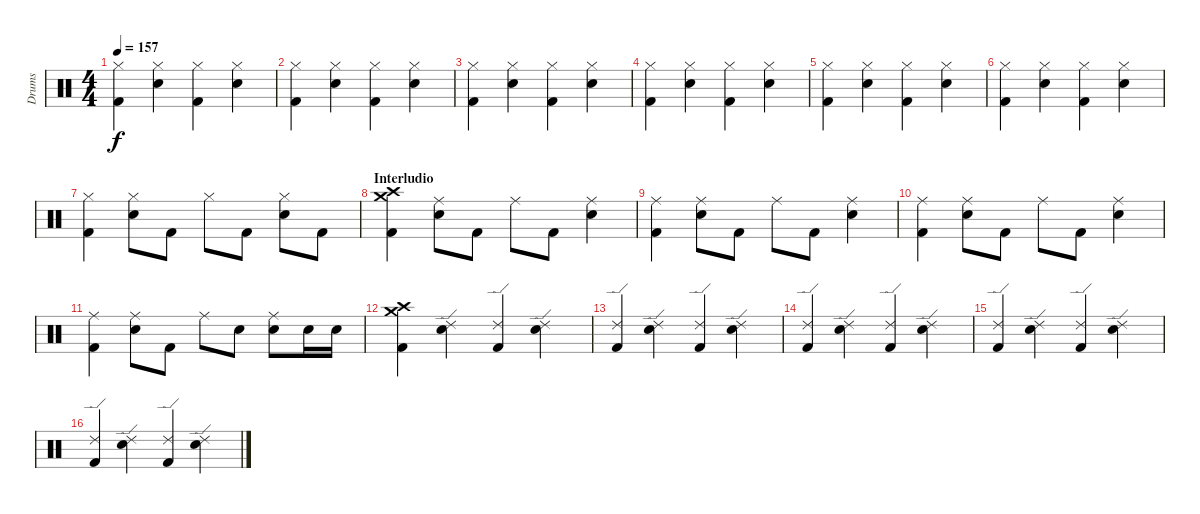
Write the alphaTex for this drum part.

\track ("Drums" "Drums") {instrument percussion}
\staff {score}
\articulation defaults
\ts (4 4)
\tempo 157
\clef neutral
\ks c
("Hi-Hat (closed)" "Kick (hit) 2").4{dy f} ("Hi-Hat (closed)" "Electric Snare (hit)").4 ("Hi-Hat (closed)" "Kick (hit) 2").4 ("Hi-Hat (closed)" "Electric Snare (hit)").4 |
("Hi-Hat (closed)" "Kick (hit) 2").4 ("Hi-Hat (closed)" "Electric Snare (hit)").4 ("Hi-Hat (closed)" "Kick (hit) 2").4 ("Hi-Hat (closed)" "Electric Snare (hit)").4 |
("Hi-Hat (closed)" "Kick (hit) 2").4 ("Hi-Hat (closed)" "Electric Snare (hit)").4 ("Hi-Hat (closed)" "Kick (hit) 2").4 ("Hi-Hat (closed)" "Electric Snare (hit)").4 |
("Hi-Hat (closed)" "Kick (hit) 2").4 ("Hi-Hat (closed)" "Electric Snare (hit)").4 ("Hi-Hat (closed)" "Kick (hit) 2").4 ("Hi-Hat (closed)" "Electric Snare (hit)").4 |
("Hi-Hat (closed)" "Kick (hit) 2").4 ("Hi-Hat (closed)" "Electric Snare (hit)").4 ("Hi-Hat (closed)" "Kick (hit) 2").4 ("Hi-Hat (closed)" "Electric Snare (hit)").4 |
("Hi-Hat (closed)" "Kick (hit) 2").4 ("Hi-Hat (closed)" "Electric Snare (hit)").4 ("Hi-Hat (closed)" "Kick (hit) 2").4 ("Hi-Hat (closed)" "Electric Snare (hit)").4 |
("Hi-Hat (closed)" "Kick (hit) 2").4 ("Hi-Hat (closed)" "Electric Snare (hit)").8 "Kick (hit) 2".8 "Hi-Hat (closed)".8 "Kick (hit) 2".8 ("Hi-Hat (closed)" "Electric Snare (hit)").8 "Kick (hit) 2".8 |
\section ("" "Interludio")
("Crash medium (hit)" "Crash high (hit)" "Kick (hit) 2").4 ("Ride (middle)" "Electric Snare (hit)").8 "Kick (hit) 2".8 "Ride (middle)".8 "Kick (hit) 2".8 ("Ride (middle)" "Electric Snare (hit)").4 |
("Ride (middle)" "Kick (hit) 2").4 ("Ride (middle)" "Electric Snare (hit)").8 "Kick (hit) 2".8 "Ride (middle)".8 "Kick (hit) 2".8 ("Ride (middle)" "Electric Snare (hit)").4 |
("Ride (middle)" "Kick (hit) 2").4 ("Ride (middle)" "Electric Snare (hit)").8 "Kick (hit) 2".8 "Ride (middle)".8 "Kick (hit) 2".8 ("Ride (middle)" "Electric Snare (hit)").4 |
("Ride (middle)" "Kick (hit) 2").4 ("Ride (middle)" "Electric Snare (hit)").8 "Kick (hit) 2".8 "Ride (middle)".8 "Electric Snare (hit)".8 ("Ride (middle)" "Electric Snare (hit)").8 "Electric Snare (hit)".16 "Electric Snare (hit)".16 |
("Crash medium (hit)" "Crash high (hit)" "Kick (hit) 2").4 ("Ride (edge) 2" "Electric Snare (hit)").4 ("Ride (edge) 2" "Kick (hit) 2").4 ("Ride (edge) 2" "Electric Snare (hit)").4 |
("Ride (edge) 2" "Kick (hit) 2").4 ("Ride (edge) 2" "Electric Snare (hit)").4 ("Ride (edge) 2" "Kick (hit) 2").4 ("Ride (edge) 2" "Electric Snare (hit)").4 |
("Ride (edge) 2" "Kick (hit) 2").4 ("Ride (edge) 2" "Electric Snare (hit)").4 ("Ride (edge) 2" "Kick (hit) 2").4 ("Ride (edge) 2" "Electric Snare (hit)").4 |
("Ride (edge) 2" "Kick (hit) 2").4 ("Ride (edge) 2" "Electric Snare (hit)").4 ("Ride (edge) 2" "Kick (hit) 2").4 ("Ride (edge) 2" "Electric Snare (hit)").4 |
("Ride (edge) 2" "Kick (hit) 2").4 ("Ride (edge) 2" "Electric Snare (hit)").4 ("Ride (edge) 2" "Kick (hit) 2").4 ("Ride (edge) 2" "Electric Snare (hit)").4
